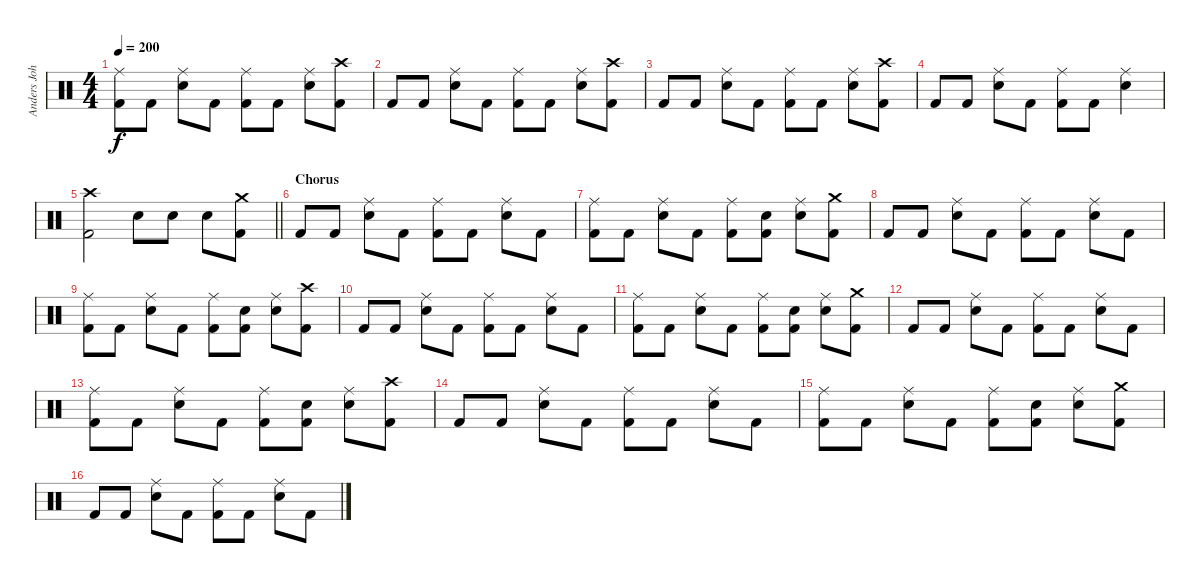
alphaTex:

\track ("Anders Johansson" "Anders Joh") {instrument percussion}
\staff {score}
\articulation defaults
\ts (4 4)
\tempo 200
\clef neutral
\ks c
("Ride (middle)" "Kick (hit) 2").8{dy f} "Kick (hit) 2".8 ("Ride (middle)" "Snare (hit) 2").8 "Kick (hit) 2".8 ("Ride (middle)" "Kick (hit) 2").8 "Kick (hit) 2".8 ("Ride (middle)" "Snare (hit) 2").8 ("Crash high (hit)" "Kick (hit) 2").8 |
"Kick (hit) 2".8 "Kick (hit) 2".8 ("Ride (middle)" "Snare (hit) 2").8 "Kick (hit) 2".8 ("Ride (middle)" "Kick (hit) 2").8 "Kick (hit) 2".8 ("Ride (middle)" "Snare (hit) 2").8 ("Crash high (hit)" "Kick (hit) 2").8 |
"Kick (hit) 2".8 "Kick (hit) 2".8 ("Ride (middle)" "Snare (hit) 2").8 "Kick (hit) 2".8 ("Ride (middle)" "Kick (hit) 2").8 "Kick (hit) 2".8 ("Ride (middle)" "Snare (hit) 2").8 ("Crash high (hit)" "Kick (hit) 2").8 |
"Kick (hit) 2".8 "Kick (hit) 2".8 ("Ride (middle)" "Snare (hit) 2").8 "Kick (hit) 2".8 ("Ride (middle)" "Kick (hit) 2").8 "Kick (hit) 2".8 ("Ride (middle)" "Snare (hit) 2").4 |
\barLineRight lightlight
("Crash high (hit)" "Kick (hit) 2").2 "Snare (hit) 2".8 "Snare (hit) 2".8 "Snare (hit) 2".8 ("Crash medium (hit)" "Kick (hit) 2").8 |
\section ("" "Chorus")
"Kick (hit) 2".8 "Kick (hit) 2".8 ("Ride (middle)" "Snare (hit) 2").8 "Kick (hit) 2".8 ("Ride (middle)" "Kick (hit) 2").8 "Kick (hit) 2".8 ("Ride (middle)" "Snare (hit) 2").8 "Kick (hit) 2".8 |
("Ride (middle)" "Kick (hit) 2").8 "Kick (hit) 2".8 ("Ride (middle)" "Snare (hit) 2").8 "Kick (hit) 2".8 ("Ride (middle)" "Kick (hit) 2").8 ("Snare (hit) 2" "Kick (hit) 2").8 ("Ride (middle)" "Snare (hit) 2").8 ("Crash medium (hit)" "Kick (hit) 2").8 |
"Kick (hit) 2".8 "Kick (hit) 2".8 ("Ride (middle)" "Snare (hit) 2").8 "Kick (hit) 2".8 ("Ride (middle)" "Kick (hit) 2").8 "Kick (hit) 2".8 ("Ride (middle)" "Snare (hit) 2").8 "Kick (hit) 2".8 |
("Ride (middle)" "Kick (hit) 2").8 "Kick (hit) 2".8 ("Ride (middle)" "Snare (hit) 2").8 "Kick (hit) 2".8 ("Ride (middle)" "Kick (hit) 2").8 ("Snare (hit) 2" "Kick (hit) 2").8 ("Ride (middle)" "Snare (hit) 2").8 ("Crash high (hit)" "Kick (hit) 2").8 |
"Kick (hit) 2".8 "Kick (hit) 2".8 ("Ride (middle)" "Snare (hit) 2").8 "Kick (hit) 2".8 ("Ride (middle)" "Kick (hit) 2").8 "Kick (hit) 2".8 ("Ride (middle)" "Snare (hit) 2").8 "Kick (hit) 2".8 |
("Ride (middle)" "Kick (hit) 2").8 "Kick (hit) 2".8 ("Ride (middle)" "Snare (hit) 2").8 "Kick (hit) 2".8 ("Ride (middle)" "Kick (hit) 2").8 ("Snare (hit) 2" "Kick (hit) 2").8 ("Ride (middle)" "Snare (hit) 2").8 ("Crash medium (hit)" "Kick (hit) 2").8 |
"Kick (hit) 2".8 "Kick (hit) 2".8 ("Ride (middle)" "Snare (hit) 2").8 "Kick (hit) 2".8 ("Ride (middle)" "Kick (hit) 2").8 "Kick (hit) 2".8 ("Ride (middle)" "Snare (hit) 2").8 "Kick (hit) 2".8 |
("Ride (middle)" "Kick (hit) 2").8 "Kick (hit) 2".8 ("Ride (middle)" "Snare (hit) 2").8 "Kick (hit) 2".8 ("Ride (middle)" "Kick (hit) 2").8 ("Snare (hit) 2" "Kick (hit) 2").8 ("Ride (middle)" "Snare (hit) 2").8 ("Crash high (hit)" "Kick (hit) 2").8 |
"Kick (hit) 2".8 "Kick (hit) 2".8 ("Ride (middle)" "Snare (hit) 2").8 "Kick (hit) 2".8 ("Ride (middle)" "Kick (hit) 2").8 "Kick (hit) 2".8 ("Ride (middle)" "Snare (hit) 2").8 "Kick (hit) 2".8 |
("Ride (middle)" "Kick (hit) 2").8 "Kick (hit) 2".8 ("Ride (middle)" "Snare (hit) 2").8 "Kick (hit) 2".8 ("Ride (middle)" "Kick (hit) 2").8 ("Snare (hit) 2" "Kick (hit) 2").8 ("Ride (middle)" "Snare (hit) 2").8 ("Crash medium (hit)" "Kick (hit) 2").8 |
"Kick (hit) 2".8 "Kick (hit) 2".8 ("Ride (middle)" "Snare (hit) 2").8 "Kick (hit) 2".8 ("Ride (middle)" "Kick (hit) 2").8 "Kick (hit) 2".8 ("Ride (middle)" "Snare (hit) 2").8 "Kick (hit) 2".8
